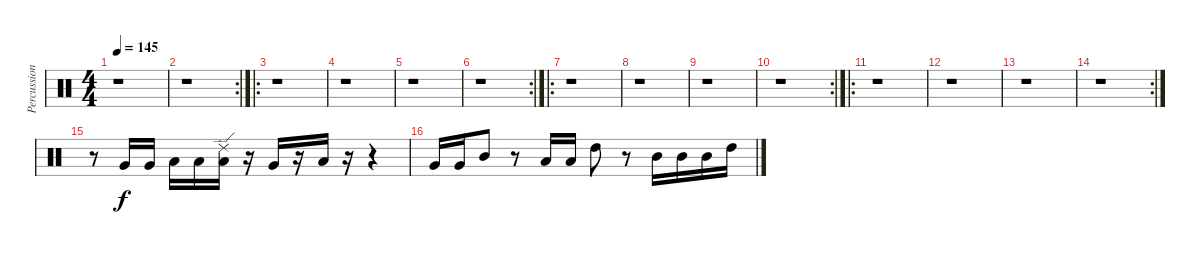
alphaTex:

\track ("Percussioni" "Percussion") {instrument percussion}
\staff {score}
\articulation defaults
\ts (4 4)
\tempo 145
\clef neutral
\ks c
r.1{dy f} |
\rc 2
r.1 |
\ro
r.1 |
r.1 |
r.1 |
\rc 2
r.1 |
\ro
r.1 |
r.1 |
r.1 |
\rc 2
r.1 |
\ro
r.1 |
r.1 |
r.1 |
\rc 2
r.1 |
r.8 "Very Low Tom (hit)".16 "Very Low Tom (hit)".16 "Low Tom (hit)".16 "Low Tom (hit)".16 ("Ride (edge) 2" "Low Tom (hit)").16 r.16 "Very Low Tom (hit)".16 r.16 "Low Tom (hit)".16 r.16 r.4 |
"Very Low Tom (hit)".16 "Very Low Tom (hit)".16 "Mid Tom (hit)".8 r.8 "Low Tom (hit)".16 "Low Tom (hit)".16 "High Tom (hit)".8 r.8 "Mid Tom (hit)".16 "Mid Tom (hit)".16 "Mid Tom (hit)".16 "High Tom (hit)".16
